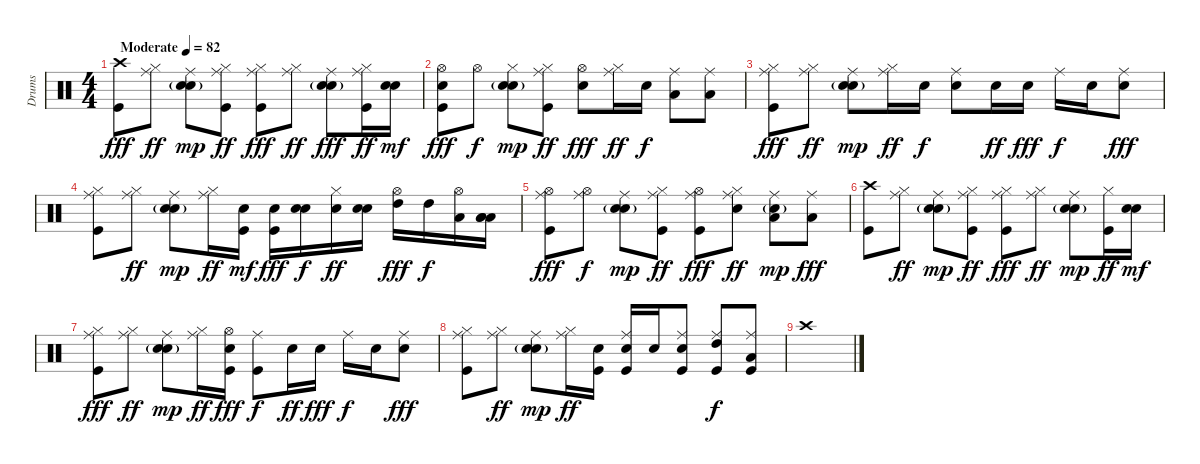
\track ("Drums" "Drums") {instrument percussion}
\staff {score}
\articulation defaults
\ts (4 4)
\tempo (82 "Moderate")
\clef neutral
\ks c
("Kick (hit)" "Crash high (hit)").8{dy fff} ("Hi-Hat (closed)" "Ride (middle)").8{dy ff} ("Snare (hit) 2" "Ride (middle)" "Hand Clap (hit)"{g}).8{dy mp} ("Kick (hit)" "Hi-Hat (closed)" "Ride (middle)").8{dy ff} ("Kick (hit)" "Hi-Hat (closed)" "Ride (middle)").8{dy fff} ("Hi-Hat (closed)" "Ride (middle)").8{dy ff} ("Snare (hit) 2" "Ride (middle)" "Hand Clap (hit)"{g}).8{dy fff} ("Kick (hit)" "Hi-Hat (closed)" "Ride (middle)").16{dy ff} ("Snare (hit) 2" "Snare (hit) 2").16{dy mf} |
("Kick (hit)" "Snare (hit) 2" "Hi-Hat (open)").8{dy fff} "Hi-Hat (open)".8{dy f} ("Snare (hit) 2" "Hi-Hat (closed)" "Hand Clap (hit)"{g}).8{dy mp} ("Kick (hit)" "Hi-Hat (closed)" "Ride (middle)").8{dy ff} ("Snare (hit) 2" "Hi-Hat (open)").8{dy fff} ("Hi-Hat (closed)" "Ride (middle)").16{dy ff} "Snare (hit) 2".16{dy f} ("Ride (middle)" "Low Tom (hit)").8 ("Ride (middle)" "Low Floor Tom (hit)").8 |
("Kick (hit)" "Hi-Hat (closed)" "Ride (middle)").8{dy fff} ("Hi-Hat (closed)" "Ride (middle)").8{dy ff} ("Snare (hit) 2" "Ride (middle)" "Hand Clap (hit)"{g}).8{dy mp} ("Hi-Hat (closed)" "Ride (middle)").16{dy ff} "Snare (hit) 2".16{dy f} ("Snare (hit) 2" "Ride (middle)").8 "Snare (hit) 2".16{dy ff} "Snare (hit) 2".16{dy fff} "Ride (middle)".16{dy f} "Snare (hit) 2".16 ("Snare (hit) 2" "Ride (middle)").8{dy fff} |
("Kick (hit)" "Hi-Hat (closed)" "Ride (middle)").8 ("Hi-Hat (closed)" "Ride (middle)").8{dy ff} ("Snare (hit) 2" "Ride (middle)" "Hand Clap (hit)"{g}).8{dy mp} ("Hi-Hat (closed)" "Ride (middle)").16{dy ff} ("Kick (hit)" "Snare (hit) 2").16{dy mf} ("Kick (hit)" "Snare (hit) 2").16{dy fff} ("Snare (hit) 2" "Snare (hit) 2").16{dy f} ("Snare (hit) 2" "Hi-Hat (closed)").16{dy ff} ("Snare (hit) 2" "Snare (hit) 2").16 ("Hi-Hat (open)" "High Tom (hit)").16{dy fff} "High Tom (hit)".16{dy f} ("Hi-Hat (open)" "Low Tom (hit)").16 ("Low Tom (hit)" "Low Floor Tom (hit)" "Low Tom (hit)").16 |
("Kick (hit)" "Hi-Hat (open)" "Ride (middle)").8{dy fff} ("Hi-Hat (open)" "Ride (middle)").8{dy f} ("Snare (hit) 2" "Ride (middle)" "Hand Clap (hit)"{g}).8{dy mp} ("Kick (hit)" "Hi-Hat (closed)" "Ride (middle)").8{dy ff} ("Kick (hit)" "Hi-Hat (open)" "Ride (middle)").8{dy fff} ("Snare (hit) 2" "Hi-Hat (closed)" "Ride (middle)").8{dy ff} ("Low Tom (hit)" "Ride (middle)" "Hand Clap (hit)"{g}).8{dy mp} ("Low Floor Tom (hit)" "Ride (middle)").8{dy fff} |
("Kick (hit)" "Crash high (hit)").8 ("Hi-Hat (closed)" "Ride (middle)").8{dy ff} ("Snare (hit) 2" "Ride (middle)" "Hand Clap (hit)"{g}).8{dy mp} ("Kick (hit)" "Hi-Hat (closed)" "Ride (middle)").8{dy ff} ("Kick (hit)" "Hi-Hat (closed)" "Ride (middle)").8{dy fff} ("Hi-Hat (closed)" "Ride (middle)").8{dy ff} ("Snare (hit) 2" "Ride (middle)" "Hand Clap (hit)"{g}).8{dy mp} ("Kick (hit)" "Hi-Hat (closed)").16{dy ff} ("Snare (hit) 2" "Snare (hit) 2").16{dy mf} |
("Kick (hit)" "Hi-Hat (closed)" "Ride (middle)").8{dy fff} ("Hi-Hat (closed)" "Ride (middle)").8{dy ff} ("Snare (hit) 2" "Ride (middle)" "Hand Clap (hit)"{g}).8{dy mp} ("Hi-Hat (closed)" "Ride (middle)").16{dy ff} ("Kick (hit)" "Snare (hit) 2" "Hi-Hat (open)").16{dy fff} ("Kick (hit)" "Ride (middle)").8{dy f} "Snare (hit) 2".16{dy ff} "Snare (hit) 2".16{dy fff} "Ride (middle)".16{dy f} "Snare (hit) 2".16 ("Snare (hit) 2" "Ride (middle)").8{dy fff} |
("Kick (hit)" "Hi-Hat (closed)" "Ride (middle)").8 ("Hi-Hat (closed)" "Ride (middle)").8{dy ff} ("Snare (hit) 2" "Ride (middle)" "Hand Clap (hit)"{g}).8{dy mp} ("Hi-Hat (closed)" "Ride (middle)").16{dy ff} ("Kick (hit)" "Snare (hit) 2").16 ("Kick (hit)" "Snare (hit) 2" "Ride (middle)").16 "Snare (hit) 2".16 ("Snare (hit) 2" "Kick (hit)" "Ride (middle)").8 ("High Tom (hit)" "Kick (hit)" "Ride (middle)").8{dy f} ("Low Tom (hit)" "Kick (hit)" "Ride (middle)").8 |
"Crash high (hit)".1
